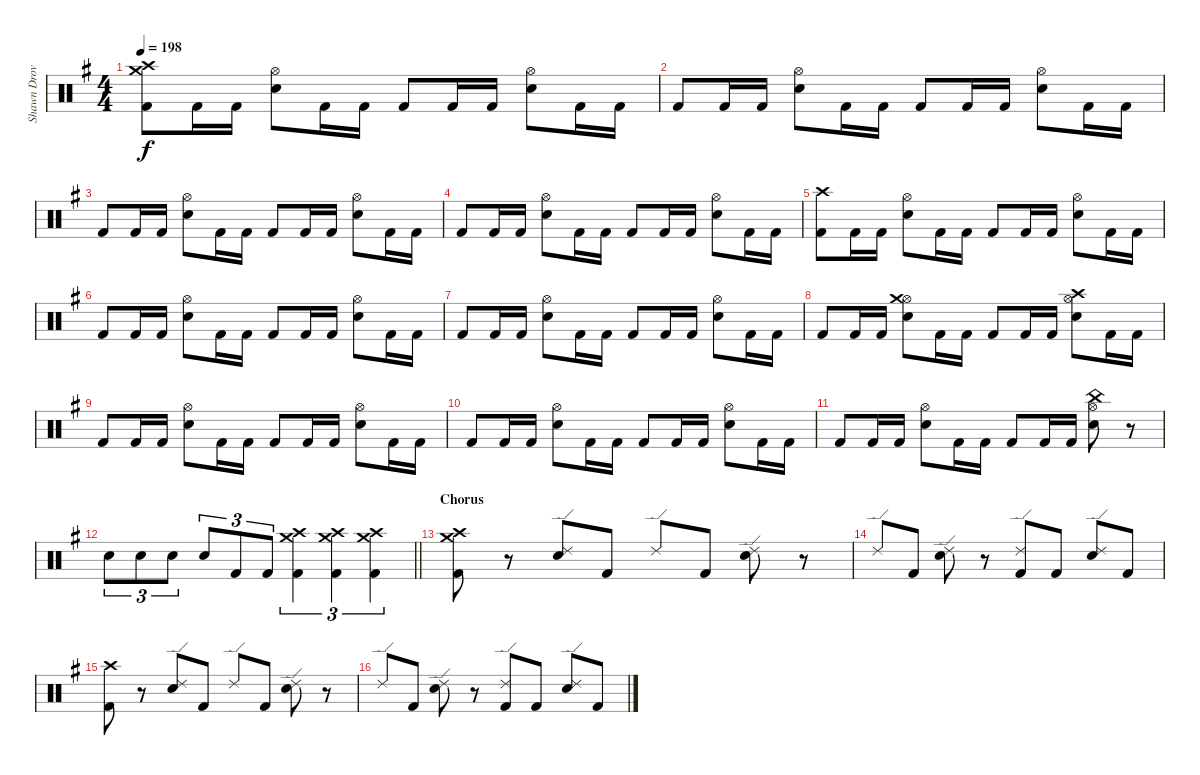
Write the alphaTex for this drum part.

\track ("Shawn Drover" "Shawn Drov") {instrument percussion}
\staff {score}
\articulation defaults
\ts (4 4)
\tempo 198
\clef neutral
\ks g
("Crash high (hit)" "Crash medium (hit)" "Kick (hit) 2").8{dy f} "Kick (hit) 2".16 "Kick (hit) 2".16 ("Hi-Hat (open)" "Snare (hit) 2").8 "Kick (hit) 2".16 "Kick (hit) 2".16 "Kick (hit) 2".8 "Kick (hit) 2".16 "Kick (hit) 2".16 ("Hi-Hat (open)" "Snare (hit) 2").8 "Kick (hit) 2".16 "Kick (hit) 2".16 |
"Kick (hit) 2".8 "Kick (hit) 2".16 "Kick (hit) 2".16 ("Hi-Hat (open)" "Snare (hit) 2").8 "Kick (hit) 2".16 "Kick (hit) 2".16 "Kick (hit) 2".8 "Kick (hit) 2".16 "Kick (hit) 2".16 ("Hi-Hat (open)" "Snare (hit) 2").8 "Kick (hit) 2".16 "Kick (hit) 2".16 |
"Kick (hit) 2".8 "Kick (hit) 2".16 "Kick (hit) 2".16 ("Hi-Hat (open)" "Snare (hit) 2").8 "Kick (hit) 2".16 "Kick (hit) 2".16 "Kick (hit) 2".8 "Kick (hit) 2".16 "Kick (hit) 2".16 ("Hi-Hat (open)" "Snare (hit) 2").8 "Kick (hit) 2".16 "Kick (hit) 2".16 |
"Kick (hit) 2".8 "Kick (hit) 2".16 "Kick (hit) 2".16 ("Hi-Hat (open)" "Snare (hit) 2").8 "Kick (hit) 2".16 "Kick (hit) 2".16 "Kick (hit) 2".8 "Kick (hit) 2".16 "Kick (hit) 2".16 ("Hi-Hat (open)" "Snare (hit) 2").8 "Kick (hit) 2".16 "Kick (hit) 2".16 |
("Crash high (hit)" "Kick (hit) 2").8 "Kick (hit) 2".16 "Kick (hit) 2".16 ("Hi-Hat (open)" "Snare (hit) 2").8 "Kick (hit) 2".16 "Kick (hit) 2".16 "Kick (hit) 2".8 "Kick (hit) 2".16 "Kick (hit) 2".16 ("Hi-Hat (open)" "Snare (hit) 2").8 "Kick (hit) 2".16 "Kick (hit) 2".16 |
"Kick (hit) 2".8 "Kick (hit) 2".16 "Kick (hit) 2".16 ("Hi-Hat (open)" "Snare (hit) 2").8 "Kick (hit) 2".16 "Kick (hit) 2".16 "Kick (hit) 2".8 "Kick (hit) 2".16 "Kick (hit) 2".16 ("Hi-Hat (open)" "Snare (hit) 2").8 "Kick (hit) 2".16 "Kick (hit) 2".16 |
"Kick (hit) 2".8 "Kick (hit) 2".16 "Kick (hit) 2".16 ("Hi-Hat (open)" "Snare (hit) 2").8 "Kick (hit) 2".16 "Kick (hit) 2".16 "Kick (hit) 2".8 "Kick (hit) 2".16 "Kick (hit) 2".16 ("Hi-Hat (open)" "Snare (hit) 2").8 "Kick (hit) 2".16 "Kick (hit) 2".16 |
"Kick (hit) 2".8 "Kick (hit) 2".16 "Kick (hit) 2".16 ("Hi-Hat (open)" "Crash medium (hit)" "Snare (hit) 2").8 "Kick (hit) 2".16 "Kick (hit) 2".16 "Kick (hit) 2".8 "Kick (hit) 2".16 "Kick (hit) 2".16 ("Hi-Hat (open)" "Crash high (hit)" "Snare (hit) 2").8 "Kick (hit) 2".16 "Kick (hit) 2".16 |
"Kick (hit) 2".8 "Kick (hit) 2".16 "Kick (hit) 2".16 ("Hi-Hat (open)" "Snare (hit) 2").8 "Kick (hit) 2".16 "Kick (hit) 2".16 "Kick (hit) 2".8 "Kick (hit) 2".16 "Kick (hit) 2".16 ("Hi-Hat (open)" "Snare (hit) 2").8 "Kick (hit) 2".16 "Kick (hit) 2".16 |
"Kick (hit) 2".8 "Kick (hit) 2".16 "Kick (hit) 2".16 ("Hi-Hat (open)" "Snare (hit) 2").8 "Kick (hit) 2".16 "Kick (hit) 2".16 "Kick (hit) 2".8 "Kick (hit) 2".16 "Kick (hit) 2".16 ("Hi-Hat (open)" "Snare (hit) 2").8 "Kick (hit) 2".16 "Kick (hit) 2".16 |
"Kick (hit) 2".8 "Kick (hit) 2".16 "Kick (hit) 2".16 ("Hi-Hat (open)" "Snare (hit) 2").8 "Kick (hit) 2".16 "Kick (hit) 2".16 "Kick (hit) 2".8 "Kick (hit) 2".16 "Kick (hit) 2".16 ("Hi-Hat (open)" "China (hit)" "Snare (hit) 2").8 r.8 |
\barLineRight lightlight "Snare (hit) 2".8{tu (3 2)} "Snare (hit) 2".8{tu (3 2)} "Snare (hit) 2".8{tu (3 2)} "Snare (hit) 2".8{tu (3 2)} "Kick (hit) 2".8{tu (3 2)} "Kick (hit) 2".8{tu (3 2)}
("Crash high (hit)" "Crash medium (hit)" "Kick (hit) 2").4{tu (3 2)} ("Crash high (hit)" "Crash medium (hit)" "Kick (hit) 2").4{tu (3 2)} ("Crash high (hit)" "Crash medium (hit)" "Kick (hit) 2").4{tu (3 2)} |
\section ("" "Chorus")
("Crash medium (hit)" "Crash high (hit)" "Kick (hit) 2").8 r.8 ("Ride (edge) 2" "Snare (hit) 2").8 "Kick (hit) 2".8 "Ride (edge) 2".8 "Kick (hit) 2".8 ("Ride (edge) 2" "Snare (hit) 2").8 r.8 |
"Ride (edge) 2".8 "Kick (hit) 2".8 ("Ride (edge) 2" "Snare (hit) 2").8 r.8 ("Ride (edge) 2" "Kick (hit) 2").8 "Kick (hit) 2".8 ("Ride (edge) 2" "Snare (hit) 2").8 "Kick (hit) 2".8 |
("Crash high (hit)" "Kick (hit) 2").8 r.8 ("Ride (edge) 2" "Snare (hit) 2").8 "Kick (hit) 2".8 "Ride (edge) 2".8 "Kick (hit) 2".8 ("Ride (edge) 2" "Snare (hit) 2").8 r.8 |
"Ride (edge) 2".8 "Kick (hit) 2".8 ("Ride (edge) 2" "Snare (hit) 2").8 r.8 ("Ride (edge) 2" "Kick (hit) 2").8 "Kick (hit) 2".8 ("Ride (edge) 2" "Snare (hit) 2").8 "Kick (hit) 2".8
